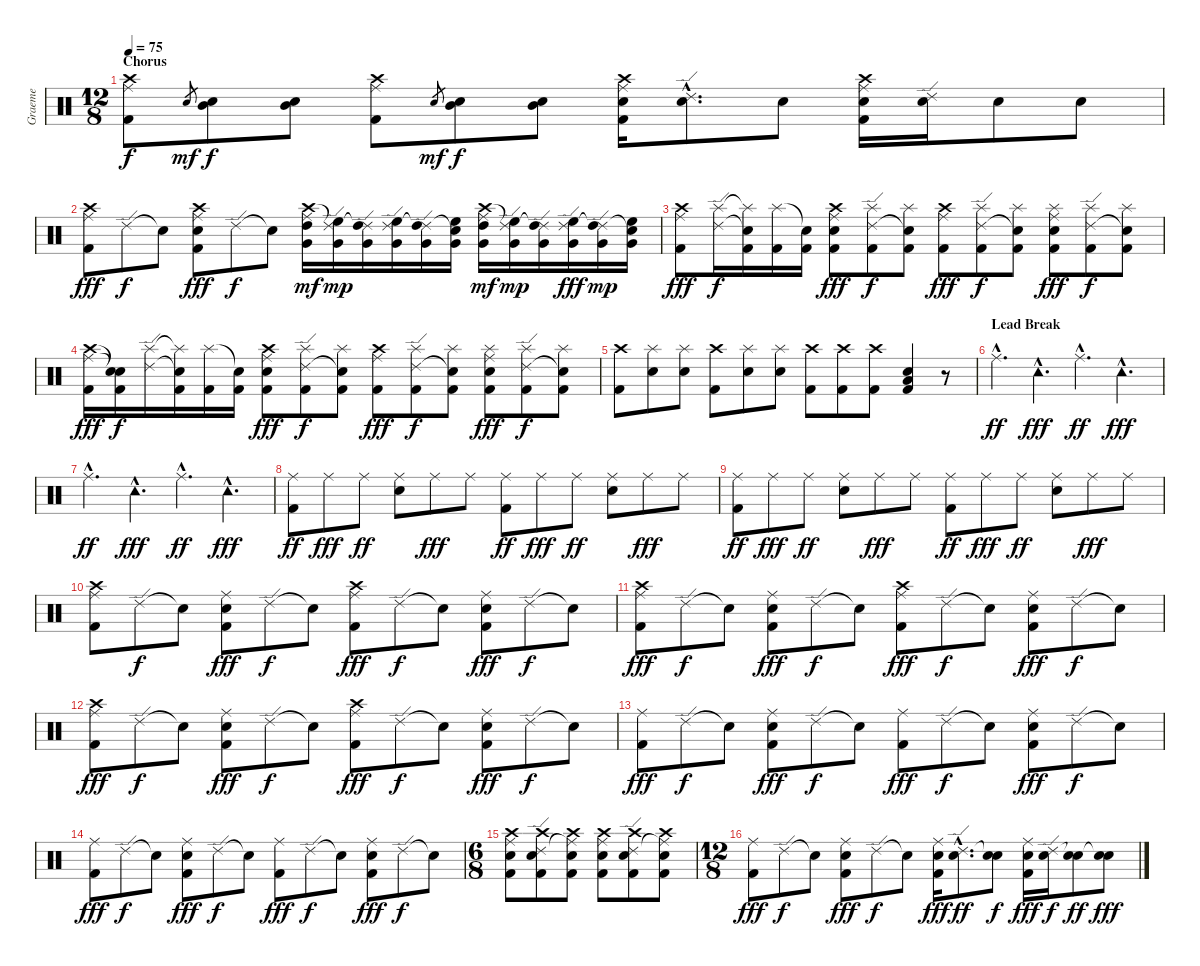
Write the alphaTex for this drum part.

\track ("Graeme" "Graeme") {instrument percussion}
\staff {score}
\articulation defaults
\ts (12 8)
\section ("" "Chorus")
\tempo 75
\clef neutral
\ks c
("Crash high (hit)" "Ride (middle)" "Kick (hit) 2").8{dy f} "Electric Snare (hit)".8{gr dy mf} ("Mid Tom (hit)" "Electric Snare (hit)").8{dy f} ("Mid Tom (hit)" "Electric Snare (hit)").8 ("Crash high (hit)" "Ride (middle)" "Kick (hit) 2").8 "Electric Snare (hit)".8{gr dy mf} ("Mid Tom (hit)" "Electric Snare (hit)").8{dy f} ("Mid Tom (hit)" "Electric Snare (hit)").8 ("Crash high (hit)" "Ride (middle)" "Electric Snare (hit)" "Kick (hit) 2").16 ("Ride (edge) 2"{hac} "Electric Snare (hit)"{hac}).8{d} "Electric Snare (hit)".8 ("Crash high (hit)" "Ride (middle)" "Electric Snare (hit)" "Kick (hit) 2").16 ("Ride (edge) 2" "Electric Snare (hit)").16 "Electric Snare (hit)".8 "Electric Snare (hit)".8 |
("Crash high (hit)" "Ride (middle)" "Kick (hit) 2").8{dy fff} "Ride (edge) 2".8{dy f} "Snare (hit)"{t}.8 ("Crash high (hit)" "Ride (middle)" "Electric Snare (hit)" "Kick (hit) 2").8{dy fff} "Ride (edge) 2".8{dy f} "Snare (hit)"{t}.8 ("Crash high (hit)" "Ride (middle)" "High Tom (hit)" "Very Low Tom (hit)").16{dy mf} ("Ride (edge) 2"{t} "High Floor Tom (hit)" "Very Low Tom (hit)").16{dy mp} ("Ride (edge) 2"{t} "High Tom (hit)" "Very Low Tom (hit)").16 ("Ride (edge) 2" "High Floor Tom (hit)" "Very Low Tom (hit)").16 ("Ride (edge) 2"{t} "High Tom (hit)" "Very Low Tom (hit)").16 ("Snare (hit)"{t} "High Floor Tom (hit)" "Very Low Tom (hit)").16 ("Crash high (hit)" "Ride (middle)" "High Tom (hit)" "Very Low Tom (hit)").16{dy mf} ("Ride (edge) 2"{t} "High Floor Tom (hit)" "Very Low Tom (hit)").16{dy mp} ("Ride (edge) 2"{t} "High Tom (hit)" "Very Low Tom (hit)").16 ("Ride (edge) 2" "High Floor Tom (hit)" "Very Low Tom (hit)").16{dy fff} ("Ride (edge) 2"{t} "High Tom (hit)" "Very Low Tom (hit)").16{dy mp} ("Snare (hit)"{t} "High Floor Tom (hit)" "Very Low Tom (hit)").16 |
("Crash high (hit)" "Ride (middle)" "Kick (hit) 2").8{dy fff} ("Splash (hit)" "Ride (edge) 2").16{dy f} ("Splash (hit)"{t} "Snare (hit)"{t} "Kick (hit) 2").16 ("Splash (hit)" "Kick (hit) 2").16 ("Snare (hit)"{t} "Kick (hit) 2").16 ("Crash high (hit)" "Ride (middle)" "Electric Snare (hit)" "Kick (hit) 2").8{dy fff} ("Splash (hit)" "Ride (edge) 2" "Kick (hit) 2").8{dy f} ("Splash (hit)" "Snare (hit)"{t} "Kick (hit) 2").8 ("Crash high (hit)" "Ride (middle)" "Kick (hit) 2").8{dy fff} ("Splash (hit)" "Ride (edge) 2" "Kick (hit) 2").8{dy f} ("Splash (hit)" "Snare (hit)"{t} "Kick (hit) 2").8 ("Splash (hit)" "Ride (middle)" "Electric Snare (hit)" "Kick (hit) 2").8{dy fff} ("Splash (hit)" "Ride (edge) 2" "Kick (hit) 2").8{dy f} ("Splash (hit)" "Snare (hit)"{t} "Kick (hit) 2").8 |
("Crash high (hit)" "Ride (middle)" "Kick (hit) 2").16{dy fff} ("Snare (hit)"{t} "Snare (hit)"{t} "Kick (hit) 2").16{dy f} ("Splash (hit)" "Ride (edge) 2").16 ("Splash (hit)"{t} "Snare (hit)"{t} "Kick (hit) 2").16 ("Splash (hit)" "Kick (hit) 2").16 ("Snare (hit)"{t} "Kick (hit) 2").16 ("Crash high (hit)" "Ride (middle)" "Electric Snare (hit)" "Kick (hit) 2").8{dy fff} ("Splash (hit)" "Ride (edge) 2" "Kick (hit) 2").8{dy f} ("Splash (hit)" "Snare (hit)"{t} "Kick (hit) 2").8 ("Crash high (hit)" "Ride (middle)" "Kick (hit) 2").8{dy fff} ("Splash (hit)" "Ride (edge) 2" "Kick (hit) 2").8{dy f} ("Splash (hit)" "Snare (hit)"{t} "Kick (hit) 2").8 ("Splash (hit)" "Ride (middle)" "Electric Snare (hit)" "Kick (hit) 2").8{dy fff} ("Splash (hit)" "Ride (edge) 2" "Kick (hit) 2").8{dy f} ("Splash (hit)" "Snare (hit)"{t} "Kick (hit) 2").8 |
("Crash high (hit)" "Kick (hit) 2").8 ("Splash (hit)" "Electric Snare (hit)").8 ("Splash (hit)" "Electric Snare (hit)").8 ("Crash high (hit)" "Kick (hit) 2").8 ("Splash (hit)" "Electric Snare (hit)").8 ("Splash (hit)" "Electric Snare (hit)").8 ("Crash high (hit)" "Kick (hit) 2").8 ("Crash high (hit)" "Kick (hit) 2").8 ("Crash high (hit)" "Kick (hit) 2").8 ("Low Floor Tom (hit)" "Electric Snare (hit)" "Kick (hit) 2").4 r.8 |
\section ("" "Lead Break")
"Ride (middle)"{hac}.4{d dy ff} "Tambourine (hit)"{hac}.4{d dy fff} "Ride (middle)"{hac}.4{d dy ff} "Tambourine (hit)"{hac}.4{d dy fff} |
"Ride (middle)"{hac}.4{d dy ff} "Tambourine (hit)"{hac}.4{d dy fff} "Ride (middle)"{hac}.4{d dy ff} "Tambourine (hit)"{hac}.4{d dy fff} |
("Ride (middle)" "Kick (hit) 2").8{dy ff} "Ride (middle)".8{dy fff} "Ride (middle)".8{dy ff} ("Ride (middle)" "Electric Snare (hit)").8 "Ride (middle)".8{dy fff} "Ride (middle)".8 ("Ride (middle)" "Kick (hit) 2").8{dy ff} "Ride (middle)".8{dy fff} "Ride (middle)".8{dy ff} ("Ride (middle)" "Electric Snare (hit)").8 "Ride (middle)".8{dy fff} "Ride (middle)".8 |
("Ride (middle)" "Kick (hit) 2").8{dy ff} "Ride (middle)".8{dy fff} "Ride (middle)".8{dy ff} ("Ride (middle)" "Electric Snare (hit)").8 "Ride (middle)".8{dy fff} "Ride (middle)".8 ("Ride (middle)" "Kick (hit) 2").8{dy ff} "Ride (middle)".8{dy fff} "Ride (middle)".8{dy ff} ("Ride (middle)" "Electric Snare (hit)").8 "Ride (middle)".8{dy fff} "Ride (middle)".8 |
("Crash high (hit)" "Ride (middle)" "Kick (hit) 2").8 "Ride (edge) 2".8{dy f} "Snare (hit)"{t}.8 ("Ride (middle)" "Electric Snare (hit)" "Kick (hit) 2").8{dy fff} "Ride (edge) 2".8{dy f} "Snare (hit)"{t}.8 ("Crash high (hit)" "Ride (middle)" "Kick (hit) 2").8{dy fff} "Ride (edge) 2".8{dy f} "Snare (hit)"{t}.8 ("Ride (middle)" "Electric Snare (hit)" "Kick (hit) 2").8{dy fff} "Ride (edge) 2".8{dy f} "Snare (hit)"{t}.8 |
("Crash high (hit)" "Ride (middle)" "Kick (hit) 2").8{dy fff} "Ride (edge) 2".8{dy f} "Snare (hit)"{t}.8 ("Ride (middle)" "Electric Snare (hit)" "Kick (hit) 2").8{dy fff} "Ride (edge) 2".8{dy f} "Snare (hit)"{t}.8 ("Crash high (hit)" "Ride (middle)" "Kick (hit) 2").8{dy fff} "Ride (edge) 2".8{dy f} "Snare (hit)"{t}.8 ("Ride (middle)" "Electric Snare (hit)" "Kick (hit) 2").8{dy fff} "Ride (edge) 2".8{dy f} "Snare (hit)"{t}.8 |
("Crash high (hit)" "Ride (middle)" "Kick (hit) 2").8{dy fff} "Ride (edge) 2".8{dy f} "Snare (hit)"{t}.8 ("Ride (middle)" "Electric Snare (hit)" "Kick (hit) 2").8{dy fff} "Ride (edge) 2".8{dy f} "Snare (hit)"{t}.8 ("Crash high (hit)" "Ride (middle)" "Kick (hit) 2").8{dy fff} "Ride (edge) 2".8{dy f} "Snare (hit)"{t}.8 ("Ride (middle)" "Electric Snare (hit)" "Kick (hit) 2").8{dy fff} "Ride (edge) 2".8{dy f} "Snare (hit)"{t}.8 |
("Ride (middle)" "Kick (hit) 2").8{dy fff} "Ride (edge) 2".8{dy f} "Snare (hit)"{t}.8 ("Ride (middle)" "Electric Snare (hit)" "Kick (hit) 2").8{dy fff} "Ride (edge) 2".8{dy f} "Snare (hit)"{t}.8 ("Ride (middle)" "Kick (hit) 2").8{dy fff} "Ride (edge) 2".8{dy f} "Snare (hit)"{t}.8 ("Ride (middle)" "Electric Snare (hit)" "Kick (hit) 2").8{dy fff} "Ride (edge) 2".8{dy f} "Snare (hit)"{t}.8 |
("Ride (middle)" "Kick (hit) 2").8{dy fff} "Ride (edge) 2".8{dy f} "Snare (hit)"{t}.8 ("Ride (middle)" "Electric Snare (hit)" "Kick (hit) 2").8{dy fff} "Ride (edge) 2".8{dy f} "Snare (hit)"{t}.8 ("Ride (middle)" "Kick (hit) 2").8{dy fff} "Ride (edge) 2".8{dy f} "Snare (hit)"{t}.8 ("Ride (middle)" "Electric Snare (hit)" "Kick (hit) 2").8{dy fff} "Ride (edge) 2".8{dy f} "Snare (hit)"{t}.8 |
\ts (6 8)
("Crash high (hit)" "Ride (middle)" "Electric Snare (hit)" "Kick (hit) 2").8 ("Crash high (hit)" "Ride (edge) 2" "Electric Snare (hit)" "Kick (hit) 2").8 ("Crash high (hit)" "Ride (middle)"{t} "Electric Snare (hit)" "Kick (hit) 2").8 ("Crash high (hit)" "Ride (middle)" "Electric Snare (hit)" "Kick (hit) 2").8 ("Crash high (hit)" "Ride (edge) 2" "Electric Snare (hit)" "Kick (hit) 2").8 ("Crash high (hit)" "Ride (middle)"{t} "Electric Snare (hit)" "Kick (hit) 2").8 |
\ts (12 8)
("Ride (middle)" "Kick (hit) 2").8{dy fff} "Ride (edge) 2".8{dy f} "Snare (hit)"{t}.8 ("Ride (middle)" "Electric Snare (hit)" "Kick (hit) 2").8{dy fff} "Ride (edge) 2".8{dy f} "Snare (hit)"{t}.8 ("Ride (middle)" "Electric Snare (hit)" "Kick (hit) 2").16{dy fff} ("Ride (edge) 2"{hac} "Electric Snare (hit)"{hac}).8{d dy ff} ("Snare (hit)"{t} "Electric Snare (hit)").8{dy f} ("Ride (middle)" "Electric Snare (hit)" "Kick (hit) 2").16{dy fff} ("Ride (edge) 2" "Electric Snare (hit)").16{dy f} ("Snare (hit)"{t} "Electric Snare (hit)").8{dy ff} ("Snare (hit)"{t} "Electric Snare (hit)").8{dy fff}
